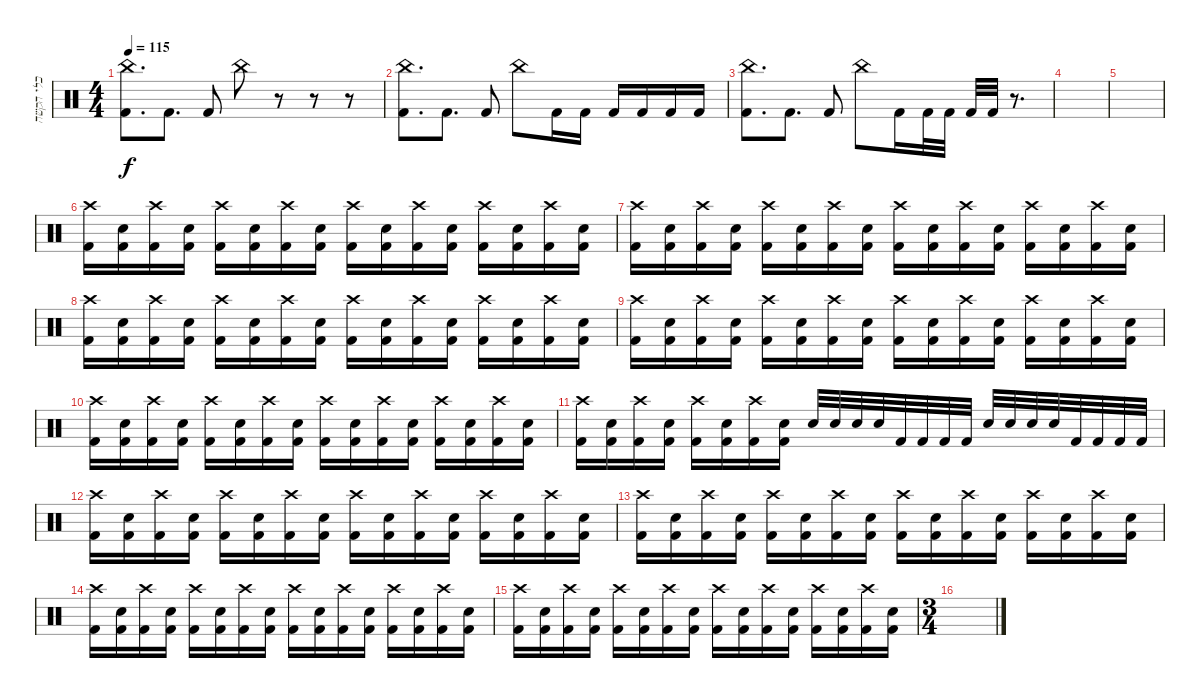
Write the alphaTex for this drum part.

\track ("כלי הקשה" "כלי הקשה") {instrument percussion}
\staff {score}
\articulation defaults
\ts (4 4)
\tempo 115
\clef neutral
\ks c
("China (hit)" "Kick (hit) 2").8{d dy f} "Kick (hit) 2".8{d} "Kick (hit) 2".8 "China (hit)".8 r.8 r.8 r.8 |
("China (hit)" "Kick (hit) 2").8{d} "Kick (hit) 2".8{d} "Kick (hit) 2".8 "China (hit)".8 "Kick (hit) 2".16 "Kick (hit) 2".16 "Kick (hit) 2".16 "Kick (hit) 2".16 "Kick (hit) 2".16 "Kick (hit) 2".16 |
("China (hit)" "Kick (hit) 2").8{d} "Kick (hit) 2".8{d} "Kick (hit) 2".8 "China (hit)".8 "Kick (hit) 2".16 "Kick (hit) 2".32 "Kick (hit) 2".32 "Kick (hit) 2".32 "Kick (hit) 2".32 r.8{d} |
|
|
("Crash high (hit)" "Kick (hit) 2").16 ("Snare (hit) 2" "Kick (hit) 2").16 ("Crash high (hit)" "Kick (hit) 2").16 ("Snare (hit) 2" "Kick (hit) 2").16 ("Crash high (hit)" "Kick (hit) 2").16 ("Snare (hit) 2" "Kick (hit) 2").16 ("Crash high (hit)" "Kick (hit) 2").16 ("Snare (hit) 2" "Kick (hit) 2").16 ("Crash high (hit)" "Kick (hit) 2").16 ("Snare (hit) 2" "Kick (hit) 2").16 ("Crash high (hit)" "Kick (hit) 2").16 ("Snare (hit) 2" "Kick (hit) 2").16 ("Crash high (hit)" "Kick (hit) 2").16 ("Snare (hit) 2" "Kick (hit) 2").16 ("Crash high (hit)" "Kick (hit) 2").16 ("Snare (hit) 2" "Kick (hit) 2").16 |
("Crash high (hit)" "Kick (hit) 2").16 ("Snare (hit) 2" "Kick (hit) 2").16 ("Crash high (hit)" "Kick (hit) 2").16 ("Snare (hit) 2" "Kick (hit) 2").16 ("Crash high (hit)" "Kick (hit) 2").16 ("Snare (hit) 2" "Kick (hit) 2").16 ("Crash high (hit)" "Kick (hit) 2").16 ("Snare (hit) 2" "Kick (hit) 2").16 ("Crash high (hit)" "Kick (hit) 2").16 ("Snare (hit) 2" "Kick (hit) 2").16 ("Crash high (hit)" "Kick (hit) 2").16 ("Snare (hit) 2" "Kick (hit) 2").16 ("Crash high (hit)" "Kick (hit) 2").16 ("Snare (hit) 2" "Kick (hit) 2").16 ("Crash high (hit)" "Kick (hit) 2").16 ("Snare (hit) 2" "Kick (hit) 2").16 |
("Crash high (hit)" "Kick (hit) 2").16 ("Snare (hit) 2" "Kick (hit) 2").16 ("Crash high (hit)" "Kick (hit) 2").16 ("Snare (hit) 2" "Kick (hit) 2").16 ("Crash high (hit)" "Kick (hit) 2").16 ("Snare (hit) 2" "Kick (hit) 2").16 ("Crash high (hit)" "Kick (hit) 2").16 ("Snare (hit) 2" "Kick (hit) 2").16 ("Crash high (hit)" "Kick (hit) 2").16 ("Snare (hit) 2" "Kick (hit) 2").16 ("Crash high (hit)" "Kick (hit) 2").16 ("Snare (hit) 2" "Kick (hit) 2").16 ("Crash high (hit)" "Kick (hit) 2").16 ("Snare (hit) 2" "Kick (hit) 2").16 ("Crash high (hit)" "Kick (hit) 2").16 ("Snare (hit) 2" "Kick (hit) 2").16 |
("Crash high (hit)" "Kick (hit) 2").16 ("Snare (hit) 2" "Kick (hit) 2").16 ("Crash high (hit)" "Kick (hit) 2").16 ("Snare (hit) 2" "Kick (hit) 2").16 ("Crash high (hit)" "Kick (hit) 2").16 ("Snare (hit) 2" "Kick (hit) 2").16 ("Crash high (hit)" "Kick (hit) 2").16 ("Snare (hit) 2" "Kick (hit) 2").16 ("Crash high (hit)" "Kick (hit) 2").16 ("Snare (hit) 2" "Kick (hit) 2").16 ("Crash high (hit)" "Kick (hit) 2").16 ("Snare (hit) 2" "Kick (hit) 2").16 ("Crash high (hit)" "Kick (hit) 2").16 ("Snare (hit) 2" "Kick (hit) 2").16 ("Crash high (hit)" "Kick (hit) 2").16 ("Snare (hit) 2" "Kick (hit) 2").16 |
("Crash high (hit)" "Kick (hit) 2").16 ("Snare (hit) 2" "Kick (hit) 2").16 ("Crash high (hit)" "Kick (hit) 2").16 ("Snare (hit) 2" "Kick (hit) 2").16 ("Crash high (hit)" "Kick (hit) 2").16 ("Snare (hit) 2" "Kick (hit) 2").16 ("Crash high (hit)" "Kick (hit) 2").16 ("Snare (hit) 2" "Kick (hit) 2").16 ("Crash high (hit)" "Kick (hit) 2").16 ("Snare (hit) 2" "Kick (hit) 2").16 ("Crash high (hit)" "Kick (hit) 2").16 ("Snare (hit) 2" "Kick (hit) 2").16 ("Crash high (hit)" "Kick (hit) 2").16 ("Snare (hit) 2" "Kick (hit) 2").16 ("Crash high (hit)" "Kick (hit) 2").16 ("Snare (hit) 2" "Kick (hit) 2").16 |
("Crash high (hit)" "Kick (hit) 2").16 ("Snare (hit) 2" "Kick (hit) 2").16 ("Crash high (hit)" "Kick (hit) 2").16 ("Snare (hit) 2" "Kick (hit) 2").16 ("Crash high (hit)" "Kick (hit) 2").16 ("Snare (hit) 2" "Kick (hit) 2").16 ("Crash high (hit)" "Kick (hit) 2").16 ("Snare (hit) 2" "Kick (hit) 2").16 "Snare (hit) 2".32 "Snare (hit) 2".32 "Snare (hit) 2".32 "Snare (hit) 2".32 "Kick (hit) 2".32 "Kick (hit) 2".32 "Kick (hit) 2".32 "Kick (hit) 2".32 "Snare (hit) 2".32 "Snare (hit) 2".32 "Snare (hit) 2".32 "Snare (hit) 2".32 "Kick (hit) 2".32 "Kick (hit) 2".32 "Kick (hit) 2".32 "Kick (hit) 2".32 |
("Crash high (hit)" "Kick (hit) 2").16 ("Snare (hit) 2" "Kick (hit) 2").16 ("Crash high (hit)" "Kick (hit) 2").16 ("Snare (hit) 2" "Kick (hit) 2").16 ("Crash high (hit)" "Kick (hit) 2").16 ("Snare (hit) 2" "Kick (hit) 2").16 ("Crash high (hit)" "Kick (hit) 2").16 ("Snare (hit) 2" "Kick (hit) 2").16 ("Crash high (hit)" "Kick (hit) 2").16 ("Snare (hit) 2" "Kick (hit) 2").16 ("Crash high (hit)" "Kick (hit) 2").16 ("Snare (hit) 2" "Kick (hit) 2").16 ("Crash high (hit)" "Kick (hit) 2").16 ("Snare (hit) 2" "Kick (hit) 2").16 ("Crash high (hit)" "Kick (hit) 2").16 ("Snare (hit) 2" "Kick (hit) 2").16 |
("Crash high (hit)" "Kick (hit) 2").16 ("Snare (hit) 2" "Kick (hit) 2").16 ("Crash high (hit)" "Kick (hit) 2").16 ("Snare (hit) 2" "Kick (hit) 2").16 ("Crash high (hit)" "Kick (hit) 2").16 ("Snare (hit) 2" "Kick (hit) 2").16 ("Crash high (hit)" "Kick (hit) 2").16 ("Snare (hit) 2" "Kick (hit) 2").16 ("Crash high (hit)" "Kick (hit) 2").16 ("Snare (hit) 2" "Kick (hit) 2").16 ("Crash high (hit)" "Kick (hit) 2").16 ("Snare (hit) 2" "Kick (hit) 2").16 ("Crash high (hit)" "Kick (hit) 2").16 ("Snare (hit) 2" "Kick (hit) 2").16 ("Crash high (hit)" "Kick (hit) 2").16 ("Snare (hit) 2" "Kick (hit) 2").16 |
("Crash high (hit)" "Kick (hit) 2").16 ("Snare (hit) 2" "Kick (hit) 2").16 ("Crash high (hit)" "Kick (hit) 2").16 ("Snare (hit) 2" "Kick (hit) 2").16 ("Crash high (hit)" "Kick (hit) 2").16 ("Snare (hit) 2" "Kick (hit) 2").16 ("Crash high (hit)" "Kick (hit) 2").16 ("Snare (hit) 2" "Kick (hit) 2").16 ("Crash high (hit)" "Kick (hit) 2").16 ("Snare (hit) 2" "Kick (hit) 2").16 ("Crash high (hit)" "Kick (hit) 2").16 ("Snare (hit) 2" "Kick (hit) 2").16 ("Crash high (hit)" "Kick (hit) 2").16 ("Snare (hit) 2" "Kick (hit) 2").16 ("Crash high (hit)" "Kick (hit) 2").16 ("Snare (hit) 2" "Kick (hit) 2").16 |
("Crash high (hit)" "Kick (hit) 2").16 ("Snare (hit) 2" "Kick (hit) 2").16 ("Crash high (hit)" "Kick (hit) 2").16 ("Snare (hit) 2" "Kick (hit) 2").16 ("Crash high (hit)" "Kick (hit) 2").16 ("Snare (hit) 2" "Kick (hit) 2").16 ("Crash high (hit)" "Kick (hit) 2").16 ("Snare (hit) 2" "Kick (hit) 2").16 ("Crash high (hit)" "Kick (hit) 2").16 ("Snare (hit) 2" "Kick (hit) 2").16 ("Crash high (hit)" "Kick (hit) 2").16 ("Snare (hit) 2" "Kick (hit) 2").16 ("Crash high (hit)" "Kick (hit) 2").16 ("Snare (hit) 2" "Kick (hit) 2").16 ("Crash high (hit)" "Kick (hit) 2").16 ("Snare (hit) 2" "Kick (hit) 2").16 |
\ts (3 4)
